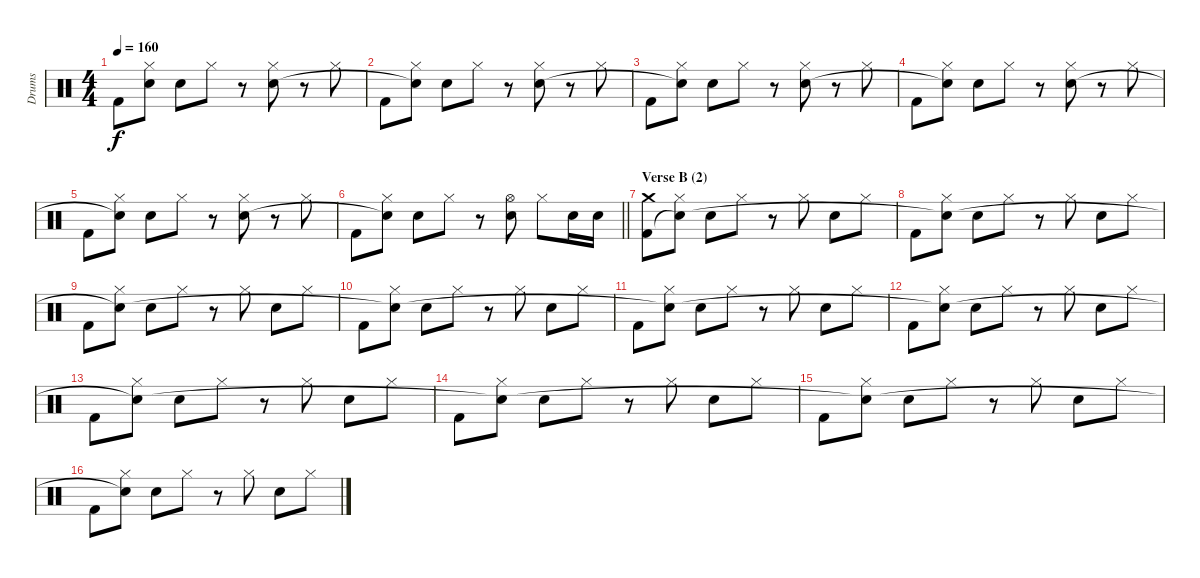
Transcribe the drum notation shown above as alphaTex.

\track ("Drums" "Drums") {instrument percussion}
\staff {score}
\articulation defaults
\ts (4 4)
\tempo 160
\clef neutral
\ks c "Kick (hit) 2".8{dy f}
("Hi-Hat (closed)" "Snare (hit)"{t}).8 "Electric Snare (hit)".8 "Hi-Hat (closed)".8 r.8 ("Hi-Hat (closed)" "Electric Snare (hit)").8 r.8 "Hi-Hat (closed)".8 |
"Kick (hit) 2".8 ("Hi-Hat (closed)" "Snare (hit)"{t}).8 "Electric Snare (hit)".8 "Hi-Hat (closed)".8 r.8 ("Hi-Hat (closed)" "Electric Snare (hit)").8 r.8 "Hi-Hat (closed)".8 |
"Kick (hit) 2".8 ("Hi-Hat (closed)" "Snare (hit)"{t}).8 "Electric Snare (hit)".8 "Hi-Hat (closed)".8 r.8 ("Hi-Hat (closed)" "Electric Snare (hit)").8 r.8 "Hi-Hat (closed)".8 |
"Kick (hit) 2".8 ("Hi-Hat (closed)" "Snare (hit)"{t}).8 "Electric Snare (hit)".8 "Hi-Hat (closed)".8 r.8 ("Hi-Hat (closed)" "Electric Snare (hit)").8 r.8 "Hi-Hat (closed)".8 |
"Kick (hit) 2".8 ("Hi-Hat (closed)" "Snare (hit)"{t}).8 "Electric Snare (hit)".8 "Hi-Hat (closed)".8 r.8 ("Hi-Hat (closed)" "Electric Snare (hit)").8 r.8 "Hi-Hat (closed)".8 |
\barLineRight lightlight "Kick (hit) 2".8
("Hi-Hat (closed)" "Snare (hit)"{t}).8 "Electric Snare (hit)".8 "Hi-Hat (closed)".8 r.8 ("Hi-Hat (open)" "Electric Snare (hit)").8 "Hi-Hat (closed)".8 "Electric Snare (hit)".16 "Electric Snare (hit)".16 |
\section ("" "Verse B (2)")
("Crash medium (hit)" "Kick (hit) 2").8 ("Hi-Hat (closed)" "Snare (hit)"{t}).8 "Electric Snare (hit)".8 "Hi-Hat (closed)".8 r.8 "Hi-Hat (closed)".8 "Electric Snare (hit)".8 "Hi-Hat (closed)".8 |
"Kick (hit) 2".8 ("Hi-Hat (closed)" "Snare (hit)"{t}).8 "Electric Snare (hit)".8 "Hi-Hat (closed)".8 r.8 "Hi-Hat (closed)".8 "Electric Snare (hit)".8 "Hi-Hat (closed)".8 |
"Kick (hit) 2".8 ("Hi-Hat (closed)" "Snare (hit)"{t}).8 "Electric Snare (hit)".8 "Hi-Hat (closed)".8 r.8 "Hi-Hat (closed)".8 "Electric Snare (hit)".8 "Hi-Hat (closed)".8 |
"Kick (hit) 2".8 ("Hi-Hat (closed)" "Snare (hit)"{t}).8 "Electric Snare (hit)".8 "Hi-Hat (closed)".8 r.8 "Hi-Hat (closed)".8 "Electric Snare (hit)".8 "Hi-Hat (closed)".8 |
"Kick (hit) 2".8 ("Hi-Hat (closed)" "Snare (hit)"{t}).8 "Electric Snare (hit)".8 "Hi-Hat (closed)".8 r.8 "Hi-Hat (closed)".8 "Electric Snare (hit)".8 "Hi-Hat (closed)".8 |
"Kick (hit) 2".8 ("Hi-Hat (closed)" "Snare (hit)"{t}).8 "Electric Snare (hit)".8 "Hi-Hat (closed)".8 r.8 "Hi-Hat (closed)".8 "Electric Snare (hit)".8 "Hi-Hat (closed)".8 |
"Kick (hit) 2".8 ("Hi-Hat (closed)" "Snare (hit)"{t}).8 "Electric Snare (hit)".8 "Hi-Hat (closed)".8 r.8 "Hi-Hat (closed)".8 "Electric Snare (hit)".8 "Hi-Hat (closed)".8 |
"Kick (hit) 2".8 ("Hi-Hat (closed)" "Snare (hit)"{t}).8 "Electric Snare (hit)".8 "Hi-Hat (closed)".8 r.8 "Hi-Hat (closed)".8 "Electric Snare (hit)".8 "Hi-Hat (closed)".8 |
"Kick (hit) 2".8 ("Hi-Hat (closed)" "Snare (hit)"{t}).8 "Electric Snare (hit)".8 "Hi-Hat (closed)".8 r.8 "Hi-Hat (closed)".8 "Electric Snare (hit)".8 "Hi-Hat (closed)".8 |
"Kick (hit) 2".8 ("Hi-Hat (closed)" "Snare (hit)"{t}).8 "Electric Snare (hit)".8 "Hi-Hat (closed)".8 r.8 "Hi-Hat (closed)".8 "Electric Snare (hit)".8 "Hi-Hat (closed)".8
